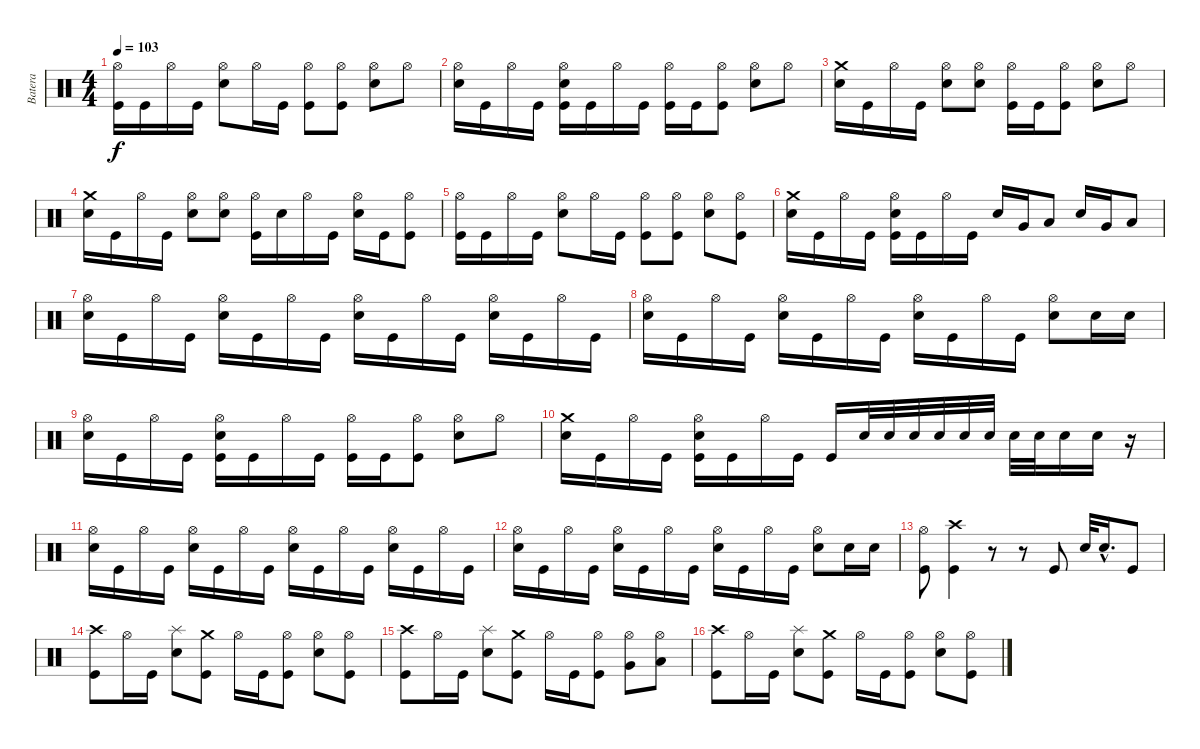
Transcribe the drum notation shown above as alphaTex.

\track ("Batera" "Batera") {instrument percussion}
\staff {score}
\articulation defaults
\ts (4 4)
\tempo 103
\clef neutral
\ks c
("Hi-Hat (open)" "Kick (hit)").16{dy f} "Kick (hit)".16 "Hi-Hat (open)".16 "Kick (hit)".16 ("Hi-Hat (open)" "Snare (hit) 2").8 "Hi-Hat (open)".16 "Kick (hit)".16 ("Hi-Hat (open)" "Kick (hit)").8 ("Hi-Hat (open)" "Kick (hit)").8 ("Hi-Hat (open)" "Snare (hit) 2").8 "Hi-Hat (open)".8 |
("Hi-Hat (open)" "Snare (hit) 2").16 "Kick (hit)".16 "Hi-Hat (open)".16 "Kick (hit)".16 ("Hi-Hat (open)" "Snare (hit) 2" "Kick (hit)").16 "Kick (hit)".16 "Hi-Hat (open)".16 "Kick (hit)".16 ("Hi-Hat (open)" "Kick (hit)").16 "Kick (hit)".16 ("Hi-Hat (open)" "Kick (hit)").8 ("Hi-Hat (open)" "Snare (hit) 2").8 "Hi-Hat (open)".8 |
("Crash medium (hit)" "Snare (hit) 2").16 "Kick (hit)".16 "Hi-Hat (open)".16 "Kick (hit)".16 ("Hi-Hat (open)" "Snare (hit) 2").8 ("Hi-Hat (open)" "Snare (hit) 2").8 ("Hi-Hat (open)" "Kick (hit)").16 "Kick (hit)".16 ("Hi-Hat (open)" "Kick (hit)").8 ("Hi-Hat (open)" "Snare (hit) 2").8 "Hi-Hat (open)".8 |
("Crash medium (hit)" "Snare (hit) 2").16 "Kick (hit)".16 "Hi-Hat (open)".16 "Kick (hit)".16 ("Hi-Hat (open)" "Snare (hit) 2").8 ("Hi-Hat (open)" "Snare (hit) 2").8 ("Hi-Hat (open)" "Kick (hit)").16 "Snare (hit) 2".16 "Hi-Hat (open)".16 "Kick (hit)".16 ("Hi-Hat (open)" "Snare (hit) 2").16 "Kick (hit)".16 ("Hi-Hat (open)" "Kick (hit)").8 |
("Hi-Hat (open)" "Kick (hit)").16 "Kick (hit)".16 "Hi-Hat (open)".16 "Kick (hit)".16 ("Hi-Hat (open)" "Snare (hit) 2").8 "Hi-Hat (open)".16 "Kick (hit)".16 ("Hi-Hat (open)" "Kick (hit)").8 ("Hi-Hat (open)" "Kick (hit)").8 ("Hi-Hat (open)" "Snare (hit) 2").8 ("Hi-Hat (open)" "Kick (hit)").8 |
("Crash medium (hit)" "Snare (hit) 2").16 "Kick (hit)".16 "Hi-Hat (open)".16 "Kick (hit)".16 ("Hi-Hat (open)" "Snare (hit) 2" "Kick (hit)").16 "Kick (hit)".16 "Hi-Hat (open)".16 "Kick (hit)".16 "Snare (hit) 2".16 "Very Low Tom (hit)".16 "Low Floor Tom (hit)".8 "Snare (hit) 2".16 "Very Low Tom (hit)".16 "Low Floor Tom (hit)".8 |
("Hi-Hat (open)" "Snare (hit) 2").16 "Kick (hit)".16 "Hi-Hat (open)".16 "Kick (hit)".16 ("Hi-Hat (open)" "Snare (hit) 2").16 "Kick (hit)".16 "Hi-Hat (open)".16 "Kick (hit)".16 ("Hi-Hat (open)" "Snare (hit) 2").16 "Kick (hit)".16 "Hi-Hat (open)".16 "Kick (hit)".16 ("Hi-Hat (open)" "Snare (hit) 2").16 "Kick (hit)".16 "Hi-Hat (open)".16 "Kick (hit)".16 |
("Hi-Hat (open)" "Snare (hit) 2").16 "Kick (hit)".16 "Hi-Hat (open)".16 "Kick (hit)".16 ("Hi-Hat (open)" "Snare (hit) 2").16 "Kick (hit)".16 "Hi-Hat (open)".16 "Kick (hit)".16 ("Hi-Hat (open)" "Snare (hit) 2").16 "Kick (hit)".16 "Hi-Hat (open)".16 "Kick (hit)".16 ("Hi-Hat (open)" "Snare (hit) 2").8 "Snare (hit) 2".16 "Snare (hit) 2".16 |
("Hi-Hat (open)" "Snare (hit) 2").16 "Kick (hit)".16 "Hi-Hat (open)".16 "Kick (hit)".16 ("Hi-Hat (open)" "Snare (hit) 2" "Kick (hit)").16 "Kick (hit)".16 "Hi-Hat (open)".16 "Kick (hit)".16 ("Hi-Hat (open)" "Kick (hit)").16 "Kick (hit)".16 ("Hi-Hat (open)" "Kick (hit)").8 ("Hi-Hat (open)" "Snare (hit) 2").8 "Hi-Hat (open)".8 |
("Crash medium (hit)" "Snare (hit) 2").16 "Kick (hit)".16 "Hi-Hat (open)".16 "Kick (hit)".16 ("Hi-Hat (open)" "Snare (hit) 2" "Kick (hit)").16 "Kick (hit)".16 "Hi-Hat (open)".16 "Kick (hit)".16 "Kick (hit)".16 "Snare (hit) 2".32 "Snare (hit) 2".32 "Snare (hit) 2".32 "Snare (hit) 2".32 "Snare (hit) 2".32 "Snare (hit) 2".32 "Snare (hit) 2".32 "Snare (hit) 2".32 "Snare (hit) 2".16 "Snare (hit) 2".16 r.16 |
("Hi-Hat (open)" "Snare (hit) 2").16 "Kick (hit)".16 "Hi-Hat (open)".16 "Kick (hit)".16 ("Hi-Hat (open)" "Snare (hit) 2").16 "Kick (hit)".16 "Hi-Hat (open)".16 "Kick (hit)".16 ("Hi-Hat (open)" "Snare (hit) 2").16 "Kick (hit)".16 "Hi-Hat (open)".16 "Kick (hit)".16 ("Hi-Hat (open)" "Snare (hit) 2").16 "Kick (hit)".16 "Hi-Hat (open)".16 "Kick (hit)".16 |
("Hi-Hat (open)" "Snare (hit) 2").16 "Kick (hit)".16 "Hi-Hat (open)".16 "Kick (hit)".16 ("Hi-Hat (open)" "Snare (hit) 2").16 "Kick (hit)".16 "Hi-Hat (open)".16 "Kick (hit)".16 ("Hi-Hat (open)" "Snare (hit) 2").16 "Kick (hit)".16 "Hi-Hat (open)".16 "Kick (hit)".16 ("Hi-Hat (open)" "Snare (hit) 2").8 "Snare (hit) 2".16 "Snare (hit) 2".16 |
("Hi-Hat (open)" "Kick (hit)").8 ("Crash high (hit)" "Kick (hit)").4 r.8 r.8 "Kick (hit)".8 "Snare (hit) 2".32 "Snare (hit) 2"{hac}.16{d} "Kick (hit)".8 |
("Crash high (hit)" "Kick (hit)").8 "Hi-Hat (open)".16 "Kick (hit)".16 ("Splash (hit)" "Snare (hit) 2").8 ("Crash medium (hit)" "Kick (hit)").8 "Hi-Hat (open)".16 "Kick (hit)".16 ("Hi-Hat (open)" "Kick (hit)").8 ("Hi-Hat (open)" "Snare (hit) 2").8 ("Hi-Hat (open)" "Kick (hit)").8 |
("Crash high (hit)" "Kick (hit)").8 "Hi-Hat (open)".16 "Kick (hit)".16 ("Splash (hit)" "Snare (hit) 2").8 ("Crash medium (hit)" "Kick (hit)").8 "Hi-Hat (open)".16 "Kick (hit)".16 ("Hi-Hat (open)" "Kick (hit)").8 ("Hi-Hat (open)" "Very Low Tom (hit)").8 ("Hi-Hat (open)" "Low Floor Tom (hit)").8 |
("Crash high (hit)" "Kick (hit)").8 "Hi-Hat (open)".16 "Kick (hit)".16 ("Splash (hit)" "Snare (hit) 2").8 ("Crash medium (hit)" "Kick (hit)").8 "Hi-Hat (open)".16 "Kick (hit)".16 ("Hi-Hat (open)" "Kick (hit)").8 ("Hi-Hat (open)" "Snare (hit) 2").8 ("Hi-Hat (open)" "Kick (hit)").8
